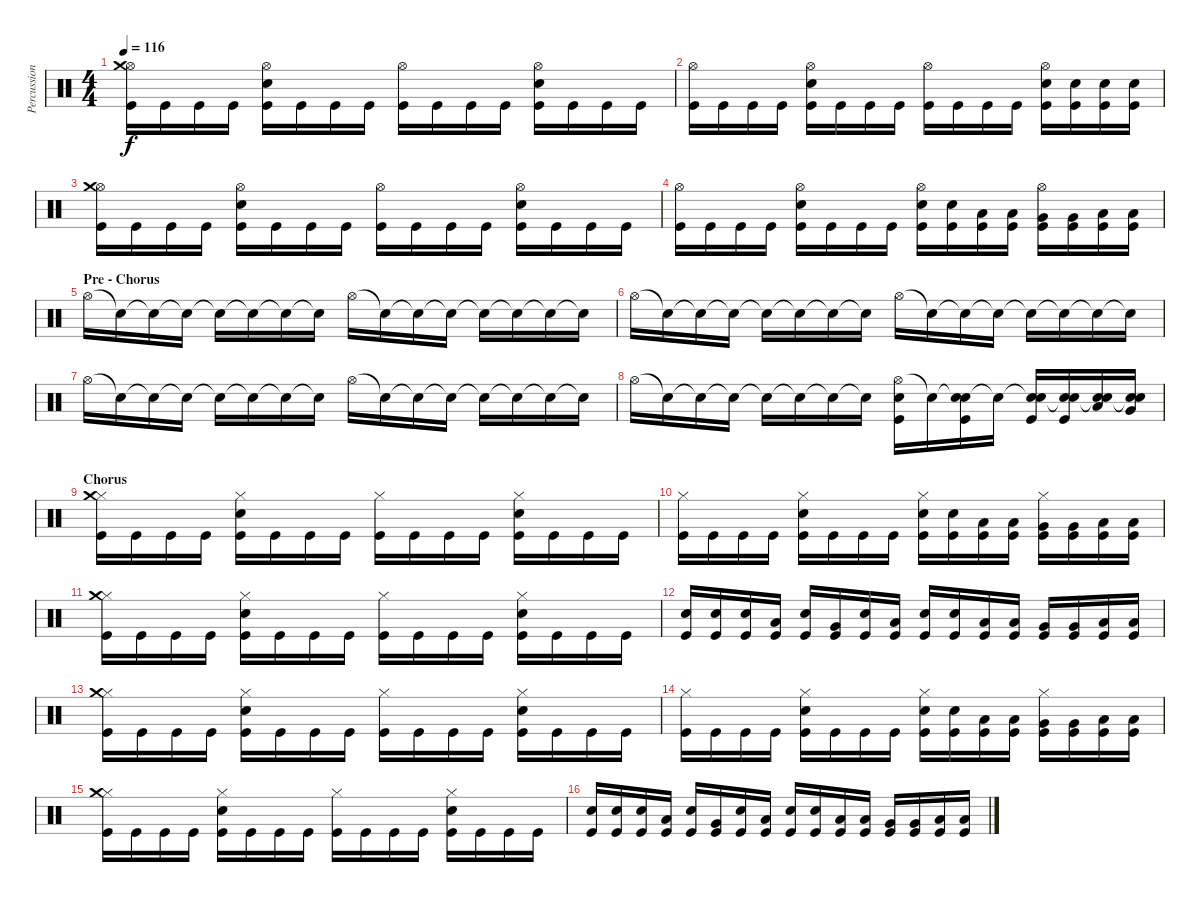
\track ("Percussion" "Percussion") {instrument percussion}
\staff {score}
\articulation defaults
\ts (4 4)
\tempo 116
\clef neutral
\ks c
("Hi-Hat (open)" "Crash medium (hit)" "Kick (hit)").16{dy f} "Kick (hit)".16 "Kick (hit)".16 "Kick (hit)".16 ("Hi-Hat (open)" "Snare (hit) 2" "Kick (hit)").16 "Kick (hit)".16 "Kick (hit)".16 "Kick (hit)".16 ("Hi-Hat (open)" "Kick (hit)").16 "Kick (hit)".16 "Kick (hit)".16 "Kick (hit)".16 ("Hi-Hat (open)" "Snare (hit) 2" "Kick (hit)").16 "Kick (hit)".16 "Kick (hit)".16 "Kick (hit)".16 |
("Hi-Hat (open)" "Kick (hit)").16 "Kick (hit)".16 "Kick (hit)".16 "Kick (hit)".16 ("Hi-Hat (open)" "Snare (hit) 2" "Kick (hit)").16 "Kick (hit)".16 "Kick (hit)".16 "Kick (hit)".16 ("Hi-Hat (open)" "Kick (hit)").16 "Kick (hit)".16 "Kick (hit)".16 "Kick (hit)".16 ("Hi-Hat (open)" "Snare (hit) 2" "Kick (hit)").16 ("Snare (hit) 2" "Kick (hit)").16 ("Snare (hit) 2" "Kick (hit)").16 ("Snare (hit) 2" "Kick (hit)").16 |
("Hi-Hat (open)" "Crash medium (hit)" "Kick (hit)").16 "Kick (hit)".16 "Kick (hit)".16 "Kick (hit)".16 ("Hi-Hat (open)" "Snare (hit) 2" "Kick (hit)").16 "Kick (hit)".16 "Kick (hit)".16 "Kick (hit)".16 ("Hi-Hat (open)" "Kick (hit)").16 "Kick (hit)".16 "Kick (hit)".16 "Kick (hit)".16 ("Hi-Hat (open)" "Snare (hit) 2" "Kick (hit)").16 "Kick (hit)".16 "Kick (hit)".16 "Kick (hit)".16 |
("Hi-Hat (open)" "Kick (hit)").16 "Kick (hit)".16 "Kick (hit)".16 "Kick (hit)".16 ("Hi-Hat (open)" "Snare (hit) 2" "Kick (hit)").16 "Kick (hit)".16 "Kick (hit)".16 "Kick (hit)".16 ("Hi-Hat (open)" "Snare (hit) 2" "Kick (hit)").16 ("Snare (hit) 2" "Kick (hit)").16 ("Low Tom (hit)" "Kick (hit)").16 ("Low Tom (hit)" "Kick (hit)").16 ("Hi-Hat (open)" "Very Low Tom (hit)" "Kick (hit)").16 ("Very Low Tom (hit)" "Kick (hit)").16 ("Low Floor Tom (hit)" "Kick (hit)").16 ("Low Floor Tom (hit)" "Kick (hit)").16 |
\section ("" "Pre - Chorus")
"Hi-Hat (open)".16 "Snare (hit)"{t}.16 "Snare (hit)"{t}.16 "Snare (hit)"{t}.16 "Snare (hit)"{t}.16 "Snare (hit)"{t}.16 "Snare (hit)"{t}.16 "Snare (hit)"{t}.16 "Hi-Hat (open)".16 "Snare (hit)"{t}.16 "Snare (hit)"{t}.16 "Snare (hit)"{t}.16 "Snare (hit)"{t}.16 "Snare (hit)"{t}.16 "Snare (hit)"{t}.16 "Snare (hit)"{t}.16 |
"Hi-Hat (open)".16 "Snare (hit)"{t}.16 "Snare (hit)"{t}.16 "Snare (hit)"{t}.16 "Snare (hit)"{t}.16 "Snare (hit)"{t}.16 "Snare (hit)"{t}.16 "Snare (hit)"{t}.16 "Hi-Hat (open)".16 "Snare (hit)"{t}.16 "Snare (hit)"{t}.16 "Snare (hit)"{t}.16 "Snare (hit)"{t}.16 "Snare (hit)"{t}.16 "Snare (hit)"{t}.16 "Snare (hit)"{t}.16 |
"Hi-Hat (open)".16 "Snare (hit)"{t}.16 "Snare (hit)"{t}.16 "Snare (hit)"{t}.16 "Snare (hit)"{t}.16 "Snare (hit)"{t}.16 "Snare (hit)"{t}.16 "Snare (hit)"{t}.16 "Hi-Hat (open)".16 "Snare (hit)"{t}.16 "Snare (hit)"{t}.16 "Snare (hit)"{t}.16 "Snare (hit)"{t}.16 "Snare (hit)"{t}.16 "Snare (hit)"{t}.16 "Snare (hit)"{t}.16 |
"Hi-Hat (open)".16 "Snare (hit)"{t}.16 "Snare (hit)"{t}.16 "Snare (hit)"{t}.16 "Snare (hit)"{t}.16 "Snare (hit)"{t}.16 "Snare (hit)"{t}.16 "Snare (hit)"{t}.16 ("Hi-Hat (open)" "Snare (hit) 2" "Kick (hit)").16 "Snare (hit)"{t}.16 ("Snare (hit)"{t} "Snare (hit) 2" "Kick (hit)").16 "Snare (hit)"{t}.16 ("Snare (hit)"{t} "Snare (hit) 2" "Kick (hit)").16 ("Snare (hit)"{t} "Snare (hit) 2" "Kick (hit)").16 ("Snare (hit)"{t} "Snare (hit) 2" "Low Tom (hit)").16 ("Snare (hit)"{t} "Snare (hit) 2" "Very Low Tom (hit)").16 |
\section ("" "Chorus")
("Hi-Hat (closed)" "Crash medium (hit)" "Kick (hit)").16 "Kick (hit)".16 "Kick (hit)".16 "Kick (hit)".16 ("Hi-Hat (closed)" "Snare (hit) 2" "Kick (hit)").16 "Kick (hit)".16 "Kick (hit)".16 "Kick (hit)".16 ("Hi-Hat (closed)" "Kick (hit)").16 "Kick (hit)".16 "Kick (hit)".16 "Kick (hit)".16 ("Hi-Hat (closed)" "Snare (hit) 2" "Kick (hit)").16 "Kick (hit)".16 "Kick (hit)".16 "Kick (hit)".16 |
("Hi-Hat (closed)" "Kick (hit)").16 "Kick (hit)".16 "Kick (hit)".16 "Kick (hit)".16 ("Hi-Hat (closed)" "Snare (hit) 2" "Kick (hit)").16 "Kick (hit)".16 "Kick (hit)".16 "Kick (hit)".16 ("Hi-Hat (closed)" "Snare (hit) 2" "Kick (hit)").16 ("Snare (hit) 2" "Kick (hit)").16 ("Low Tom (hit)" "Kick (hit)").16 ("Low Tom (hit)" "Kick (hit)").16 ("Hi-Hat (closed)" "Very Low Tom (hit)" "Kick (hit)").16 ("Very Low Tom (hit)" "Kick (hit)").16 ("Low Floor Tom (hit)" "Kick (hit)").16 ("Low Floor Tom (hit)" "Kick (hit)").16 |
("Hi-Hat (closed)" "Crash medium (hit)" "Kick (hit)").16 "Kick (hit)".16 "Kick (hit)".16 "Kick (hit)".16 ("Hi-Hat (closed)" "Snare (hit) 2" "Kick (hit)").16 "Kick (hit)".16 "Kick (hit)".16 "Kick (hit)".16 ("Hi-Hat (closed)" "Kick (hit)").16 "Kick (hit)".16 "Kick (hit)".16 "Kick (hit)".16 ("Hi-Hat (closed)" "Snare (hit) 2" "Kick (hit)").16 "Kick (hit)".16 "Kick (hit)".16 "Kick (hit)".16 |
("Snare (hit) 2" "Kick (hit)").16 ("Snare (hit) 2" "Kick (hit)").16 ("Snare (hit) 2" "Kick (hit)").16 ("Low Tom (hit)" "Kick (hit)").16 ("Snare (hit) 2" "Kick (hit)").16 ("Very Low Tom (hit)" "Kick (hit)").16 ("Snare (hit) 2" "Kick (hit)").16 ("Low Floor Tom (hit)" "Kick (hit)").16 ("Snare (hit) 2" "Kick (hit)").16 ("Snare (hit) 2" "Kick (hit)").16 ("Low Tom (hit)" "Kick (hit)").16 ("Low Tom (hit)" "Kick (hit)").16 ("Very Low Tom (hit)" "Kick (hit)").16 ("Very Low Tom (hit)" "Kick (hit)").16 ("Low Floor Tom (hit)" "Kick (hit)").16 ("Low Floor Tom (hit)" "Kick (hit)").16 |
("Hi-Hat (closed)" "Crash medium (hit)" "Kick (hit)").16 "Kick (hit)".16 "Kick (hit)".16 "Kick (hit)".16 ("Hi-Hat (closed)" "Snare (hit) 2" "Kick (hit)").16 "Kick (hit)".16 "Kick (hit)".16 "Kick (hit)".16 ("Hi-Hat (closed)" "Kick (hit)").16 "Kick (hit)".16 "Kick (hit)".16 "Kick (hit)".16 ("Hi-Hat (closed)" "Snare (hit) 2" "Kick (hit)").16 "Kick (hit)".16 "Kick (hit)".16 "Kick (hit)".16 |
("Hi-Hat (closed)" "Kick (hit)").16 "Kick (hit)".16 "Kick (hit)".16 "Kick (hit)".16 ("Hi-Hat (closed)" "Snare (hit) 2" "Kick (hit)").16 "Kick (hit)".16 "Kick (hit)".16 "Kick (hit)".16 ("Hi-Hat (closed)" "Snare (hit) 2" "Kick (hit)").16 ("Snare (hit) 2" "Kick (hit)").16 ("Low Tom (hit)" "Kick (hit)").16 ("Low Tom (hit)" "Kick (hit)").16 ("Hi-Hat (closed)" "Very Low Tom (hit)" "Kick (hit)").16 ("Very Low Tom (hit)" "Kick (hit)").16 ("Low Floor Tom (hit)" "Kick (hit)").16 ("Low Floor Tom (hit)" "Kick (hit)").16 |
("Hi-Hat (closed)" "Crash medium (hit)" "Kick (hit)").16 "Kick (hit)".16 "Kick (hit)".16 "Kick (hit)".16 ("Hi-Hat (closed)" "Snare (hit) 2" "Kick (hit)").16 "Kick (hit)".16 "Kick (hit)".16 "Kick (hit)".16 ("Hi-Hat (closed)" "Kick (hit)").16 "Kick (hit)".16 "Kick (hit)".16 "Kick (hit)".16 ("Hi-Hat (closed)" "Snare (hit) 2" "Kick (hit)").16 "Kick (hit)".16 "Kick (hit)".16 "Kick (hit)".16 |
("Snare (hit) 2" "Kick (hit)").16 ("Snare (hit) 2" "Kick (hit)").16 ("Snare (hit) 2" "Kick (hit)").16 ("Low Tom (hit)" "Kick (hit)").16 ("Snare (hit) 2" "Kick (hit)").16 ("Very Low Tom (hit)" "Kick (hit)").16 ("Snare (hit) 2" "Kick (hit)").16 ("Low Floor Tom (hit)" "Kick (hit)").16 ("Snare (hit) 2" "Kick (hit)").16 ("Snare (hit) 2" "Kick (hit)").16 ("Low Tom (hit)" "Kick (hit)").16 ("Low Tom (hit)" "Kick (hit)").16 ("Very Low Tom (hit)" "Kick (hit)").16 ("Very Low Tom (hit)" "Kick (hit)").16 ("Low Floor Tom (hit)" "Kick (hit)").16 ("Low Floor Tom (hit)" "Kick (hit)").16
